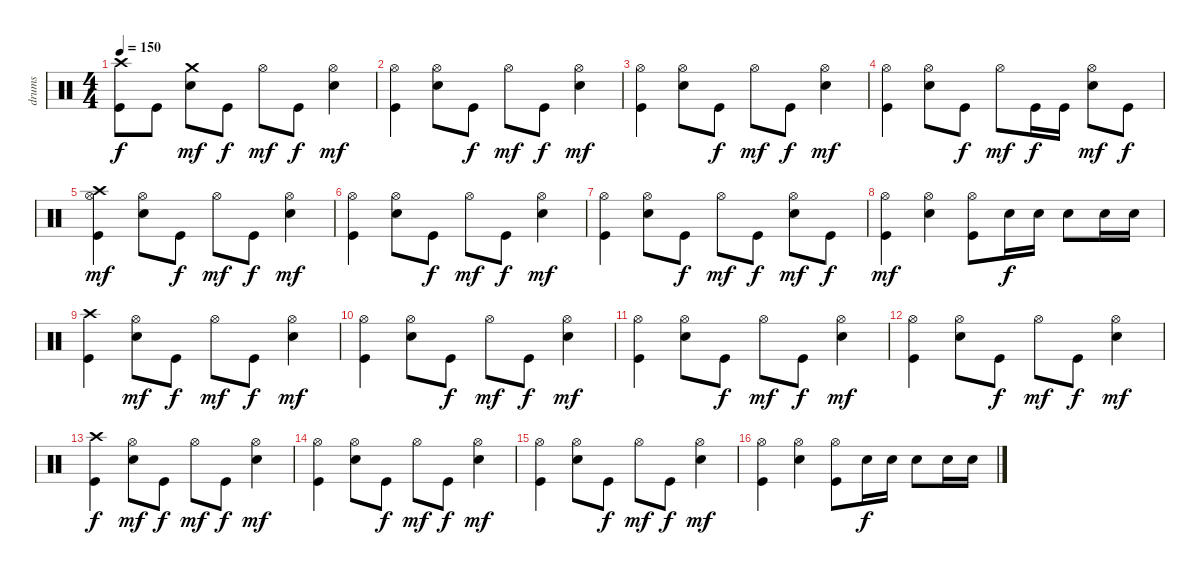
\track ("drums" "drums") {instrument percussion}
\staff {score}
\articulation defaults
\ts (4 4)
\tempo 150
\clef neutral
\ks c
("Kick (hit)" "Crash high (hit)").8{dy f} "Kick (hit)".8 ("Electric Snare (hit)" "Crash medium (hit)").8{dy mf} "Kick (hit)".8{dy f} "Hi-Hat (open)".8{dy mf} "Kick (hit)".8{dy f} ("Electric Snare (hit)" "Hi-Hat (open)").4{dy mf} |
("Kick (hit)" "Hi-Hat (open)").4 ("Electric Snare (hit)" "Hi-Hat (open)").8 "Kick (hit)".8{dy f} "Hi-Hat (open)".8{dy mf} "Kick (hit)".8{dy f} ("Electric Snare (hit)" "Hi-Hat (open)").4{dy mf} |
("Kick (hit)" "Hi-Hat (open)").4 ("Electric Snare (hit)" "Hi-Hat (open)").8 "Kick (hit)".8{dy f} "Hi-Hat (open)".8{dy mf} "Kick (hit)".8{dy f} ("Electric Snare (hit)" "Hi-Hat (open)").4{dy mf} |
("Kick (hit)" "Hi-Hat (open)").4 ("Electric Snare (hit)" "Hi-Hat (open)").8 "Kick (hit)".8{dy f} "Hi-Hat (open)".8{dy mf} "Kick (hit)".16{dy f} "Kick (hit)".16 ("Electric Snare (hit)" "Hi-Hat (open)").8{dy mf} "Kick (hit)".8{dy f} |
("Kick (hit)" "Hi-Hat (open)" "Crash high (hit)").4{dy mf} ("Electric Snare (hit)" "Hi-Hat (open)").8 "Kick (hit)".8{dy f} "Hi-Hat (open)".8{dy mf} "Kick (hit)".8{dy f} ("Electric Snare (hit)" "Hi-Hat (open)").4{dy mf} |
("Kick (hit)" "Hi-Hat (open)").4 ("Electric Snare (hit)" "Hi-Hat (open)").8 "Kick (hit)".8{dy f} "Hi-Hat (open)".8{dy mf} "Kick (hit)".8{dy f} ("Electric Snare (hit)" "Hi-Hat (open)").4{dy mf} |
("Kick (hit)" "Hi-Hat (open)").4 ("Electric Snare (hit)" "Hi-Hat (open)").8 "Kick (hit)".8{dy f} "Hi-Hat (open)".8{dy mf} "Kick (hit)".8{dy f} ("Electric Snare (hit)" "Hi-Hat (open)").8{dy mf} "Kick (hit)".8{dy f} |
("Kick (hit)" "Hi-Hat (open)").4{dy mf} ("Electric Snare (hit)" "Hi-Hat (open)").4 ("Kick (hit)" "Hi-Hat (open)").8 "Electric Snare (hit)".16{dy f} "Electric Snare (hit)".16 "Electric Snare (hit)".8 "Electric Snare (hit)".16 "Electric Snare (hit)".16 |
("Kick (hit)" "Crash high (hit)").4 ("Electric Snare (hit)" "Hi-Hat (open)").8{dy mf} "Kick (hit)".8{dy f} "Hi-Hat (open)".8{dy mf} "Kick (hit)".8{dy f} ("Electric Snare (hit)" "Hi-Hat (open)").4{dy mf} |
("Kick (hit)" "Hi-Hat (open)").4 ("Electric Snare (hit)" "Hi-Hat (open)").8 "Kick (hit)".8{dy f} "Hi-Hat (open)".8{dy mf} "Kick (hit)".8{dy f} ("Electric Snare (hit)" "Hi-Hat (open)").4{dy mf} |
("Kick (hit)" "Hi-Hat (open)").4 ("Electric Snare (hit)" "Hi-Hat (open)").8 "Kick (hit)".8{dy f} "Hi-Hat (open)".8{dy mf} "Kick (hit)".8{dy f} ("Electric Snare (hit)" "Hi-Hat (open)").4{dy mf} |
("Kick (hit)" "Hi-Hat (open)").4 ("Electric Snare (hit)" "Hi-Hat (open)").8 "Kick (hit)".8{dy f} "Hi-Hat (open)".8{dy mf} "Kick (hit)".8{dy f} ("Electric Snare (hit)" "Hi-Hat (open)").4{dy mf} |
("Kick (hit)" "Crash high (hit)").4{dy f} ("Electric Snare (hit)" "Hi-Hat (open)").8{dy mf} "Kick (hit)".8{dy f} "Hi-Hat (open)".8{dy mf} "Kick (hit)".8{dy f} ("Electric Snare (hit)" "Hi-Hat (open)").4{dy mf} |
("Kick (hit)" "Hi-Hat (open)").4 ("Electric Snare (hit)" "Hi-Hat (open)").8 "Kick (hit)".8{dy f} "Hi-Hat (open)".8{dy mf} "Kick (hit)".8{dy f} ("Electric Snare (hit)" "Hi-Hat (open)").4{dy mf} |
("Kick (hit)" "Hi-Hat (open)").4 ("Electric Snare (hit)" "Hi-Hat (open)").8 "Kick (hit)".8{dy f} "Hi-Hat (open)".8{dy mf} "Kick (hit)".8{dy f} ("Electric Snare (hit)" "Hi-Hat (open)").4{dy mf} |
("Kick (hit)" "Hi-Hat (open)").4 ("Electric Snare (hit)" "Hi-Hat (open)").4 ("Kick (hit)" "Hi-Hat (open)").8 "Electric Snare (hit)".16{dy f} "Electric Snare (hit)".16 "Electric Snare (hit)".8 "Electric Snare (hit)".16 "Electric Snare (hit)".16
